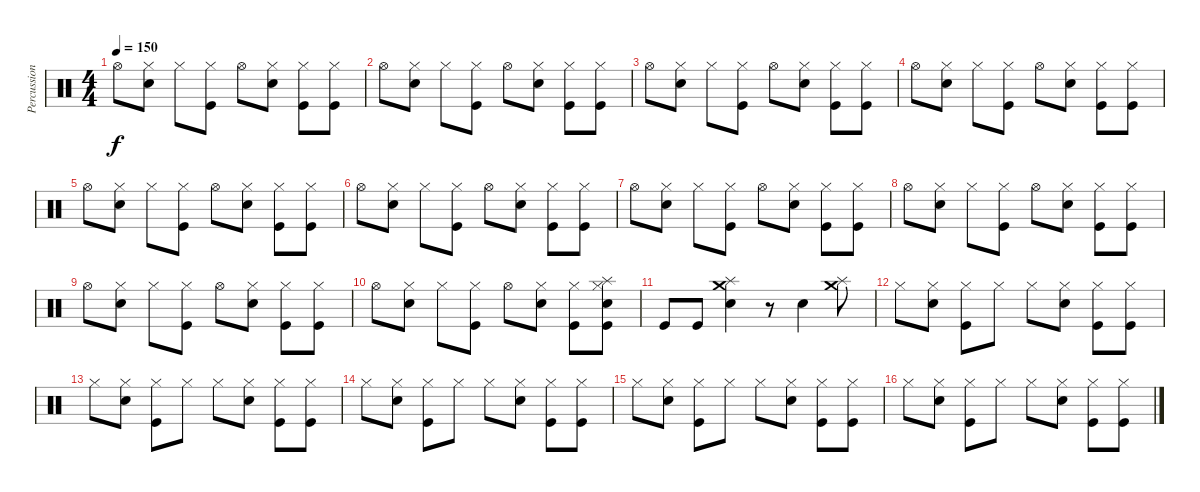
\track ("Percussioni" "Percussion") {instrument percussion}
\staff {score}
\articulation defaults
\ts (4 4)
\tempo 150
\clef neutral
\ks c "Hi-Hat (open)".8{dy f}
("Hi-Hat (closed)" "Snare (hit) 2").8 "Hi-Hat (closed)".8 ("Hi-Hat (closed)" "Kick (hit)").8 "Hi-Hat (open)".8 ("Hi-Hat (closed)" "Snare (hit) 2").8 ("Hi-Hat (closed)" "Kick (hit)").8 ("Hi-Hat (closed)" "Kick (hit)").8 |
"Hi-Hat (open)".8 ("Hi-Hat (closed)" "Snare (hit) 2").8 "Hi-Hat (closed)".8 ("Hi-Hat (closed)" "Kick (hit)").8 "Hi-Hat (open)".8 ("Hi-Hat (closed)" "Snare (hit) 2").8 ("Hi-Hat (closed)" "Kick (hit)").8 ("Hi-Hat (closed)" "Kick (hit)").8 |
"Hi-Hat (open)".8 ("Hi-Hat (closed)" "Snare (hit) 2").8 "Hi-Hat (closed)".8 ("Hi-Hat (closed)" "Kick (hit)").8 "Hi-Hat (open)".8 ("Hi-Hat (closed)" "Snare (hit) 2").8 ("Hi-Hat (closed)" "Kick (hit)").8 ("Hi-Hat (closed)" "Kick (hit)").8 |
"Hi-Hat (open)".8 ("Hi-Hat (closed)" "Snare (hit) 2").8 "Hi-Hat (closed)".8 ("Hi-Hat (closed)" "Kick (hit)").8 "Hi-Hat (open)".8 ("Hi-Hat (closed)" "Snare (hit) 2").8 ("Hi-Hat (closed)" "Kick (hit)").8 ("Hi-Hat (closed)" "Kick (hit)").8 |
"Hi-Hat (open)".8 ("Hi-Hat (closed)" "Snare (hit) 2").8 "Hi-Hat (closed)".8 ("Hi-Hat (closed)" "Kick (hit)").8 "Hi-Hat (open)".8 ("Hi-Hat (closed)" "Snare (hit) 2").8 ("Hi-Hat (closed)" "Kick (hit)").8 ("Hi-Hat (closed)" "Kick (hit)").8 |
"Hi-Hat (open)".8 ("Hi-Hat (closed)" "Snare (hit) 2").8 "Hi-Hat (closed)".8 ("Hi-Hat (closed)" "Kick (hit)").8 "Hi-Hat (open)".8 ("Hi-Hat (closed)" "Snare (hit) 2").8 ("Hi-Hat (closed)" "Kick (hit)").8 ("Hi-Hat (closed)" "Kick (hit)").8 |
"Hi-Hat (open)".8 ("Hi-Hat (closed)" "Snare (hit) 2").8 "Hi-Hat (closed)".8 ("Hi-Hat (closed)" "Kick (hit)").8 "Hi-Hat (open)".8 ("Hi-Hat (closed)" "Snare (hit) 2").8 ("Hi-Hat (closed)" "Kick (hit)").8 ("Hi-Hat (closed)" "Kick (hit)").8 |
"Hi-Hat (open)".8 ("Hi-Hat (closed)" "Snare (hit) 2").8 "Hi-Hat (closed)".8 ("Hi-Hat (closed)" "Kick (hit)").8 "Hi-Hat (open)".8 ("Hi-Hat (closed)" "Snare (hit) 2").8 ("Hi-Hat (closed)" "Kick (hit)").8 ("Hi-Hat (closed)" "Kick (hit)").8 |
"Hi-Hat (open)".8 ("Hi-Hat (closed)" "Snare (hit) 2").8 "Hi-Hat (closed)".8 ("Hi-Hat (closed)" "Kick (hit)").8 "Hi-Hat (open)".8 ("Hi-Hat (closed)" "Snare (hit) 2").8 ("Hi-Hat (closed)" "Kick (hit)").8 ("Hi-Hat (closed)" "Kick (hit)").8 |
"Hi-Hat (open)".8 ("Hi-Hat (closed)" "Snare (hit) 2").8 "Hi-Hat (closed)".8 ("Hi-Hat (closed)" "Kick (hit)").8 "Hi-Hat (open)".8 ("Hi-Hat (closed)" "Snare (hit) 2").8 ("Hi-Hat (closed)" "Kick (hit)").8 ("Splash (hit)" "Hi-Hat (closed)" "Snare (hit) 2" "Kick (hit)").8 |
"Kick (hit)".8 "Kick (hit)".8 ("Crash medium (hit)" "Splash (hit)" "Snare (hit) 2").4 r.8 "Snare (hit) 2".4 ("Crash medium (hit)" "Splash (hit)").8 |
"Hi-Hat (closed)".8 ("Hi-Hat (closed)" "Snare (hit) 2").8 ("Hi-Hat (closed)" "Kick (hit)").8 "Hi-Hat (closed)".8 "Hi-Hat (closed)".8 ("Hi-Hat (closed)" "Snare (hit) 2").8 ("Hi-Hat (closed)" "Kick (hit)").8 ("Hi-Hat (closed)" "Kick (hit)").8 |
"Hi-Hat (closed)".8 ("Hi-Hat (closed)" "Snare (hit) 2").8 ("Hi-Hat (closed)" "Kick (hit)").8 "Hi-Hat (closed)".8 "Hi-Hat (closed)".8 ("Hi-Hat (closed)" "Snare (hit) 2").8 ("Hi-Hat (closed)" "Kick (hit)").8 ("Hi-Hat (closed)" "Kick (hit)").8 |
"Hi-Hat (closed)".8 ("Hi-Hat (closed)" "Snare (hit) 2").8 ("Hi-Hat (closed)" "Kick (hit)").8 "Hi-Hat (closed)".8 "Hi-Hat (closed)".8 ("Hi-Hat (closed)" "Snare (hit) 2").8 ("Hi-Hat (closed)" "Kick (hit)").8 ("Hi-Hat (closed)" "Kick (hit)").8 |
"Hi-Hat (closed)".8 ("Hi-Hat (closed)" "Snare (hit) 2").8 ("Hi-Hat (closed)" "Kick (hit)").8 "Hi-Hat (closed)".8 "Hi-Hat (closed)".8 ("Hi-Hat (closed)" "Snare (hit) 2").8 ("Hi-Hat (closed)" "Kick (hit)").8 ("Hi-Hat (closed)" "Kick (hit)").8 |
"Hi-Hat (closed)".8 ("Hi-Hat (closed)" "Snare (hit) 2").8 ("Hi-Hat (closed)" "Kick (hit)").8 "Hi-Hat (closed)".8 "Hi-Hat (closed)".8 ("Hi-Hat (closed)" "Snare (hit) 2").8 ("Hi-Hat (closed)" "Kick (hit)").8 ("Hi-Hat (closed)" "Kick (hit)").8
